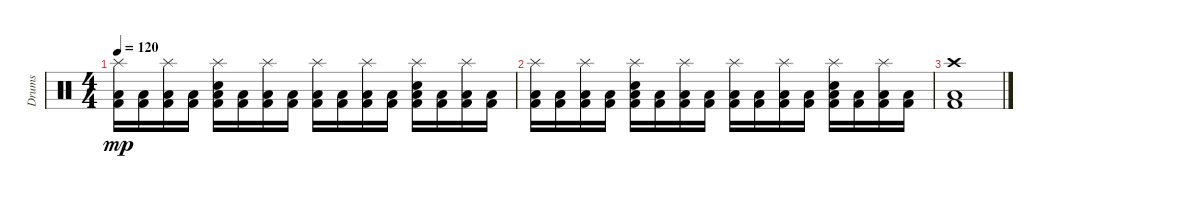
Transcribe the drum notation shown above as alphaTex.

\track ("Drums" "Drums") {instrument percussion}
\staff {score}
\articulation defaults
\ts (4 4)
\tempo 120
\clef neutral
\ks c
("Splash (hit)" "Low Floor Tom (hit)" "Kick (hit) 2").16{dy mp} ("Low Floor Tom (hit)" "Kick (hit) 2").16 ("Splash (hit)" "Low Floor Tom (hit)" "Kick (hit) 2").16 ("Low Floor Tom (hit)" "Kick (hit) 2").16 ("Splash (hit)" "Snare (hit) 2" "Low Floor Tom (hit)" "Kick (hit) 2").16 ("Low Floor Tom (hit)" "Kick (hit) 2").16 ("Splash (hit)" "Low Floor Tom (hit)" "Kick (hit) 2").16 ("Low Floor Tom (hit)" "Kick (hit) 2").16 ("Splash (hit)" "Low Floor Tom (hit)" "Kick (hit) 2").16 ("Low Floor Tom (hit)" "Kick (hit) 2").16 ("Splash (hit)" "Low Floor Tom (hit)" "Kick (hit) 2").16 ("Low Floor Tom (hit)" "Kick (hit) 2").16 ("Splash (hit)" "Snare (hit) 2" "Low Floor Tom (hit)" "Kick (hit) 2").16 ("Low Floor Tom (hit)" "Kick (hit) 2").16 ("Splash (hit)" "Low Floor Tom (hit)" "Kick (hit) 2").16 ("Low Floor Tom (hit)" "Kick (hit) 2").16 |
("Splash (hit)" "Low Floor Tom (hit)" "Kick (hit) 2").16 ("Low Floor Tom (hit)" "Kick (hit) 2").16 ("Splash (hit)" "Low Floor Tom (hit)" "Kick (hit) 2").16 ("Low Floor Tom (hit)" "Kick (hit) 2").16 ("Splash (hit)" "Snare (hit) 2" "Low Floor Tom (hit)" "Kick (hit) 2").16 ("Low Floor Tom (hit)" "Kick (hit) 2").16 ("Splash (hit)" "Low Floor Tom (hit)" "Kick (hit) 2").16 ("Low Floor Tom (hit)" "Kick (hit) 2").16 ("Splash (hit)" "Low Floor Tom (hit)" "Kick (hit) 2").16 ("Low Floor Tom (hit)" "Kick (hit) 2").16 ("Splash (hit)" "Low Floor Tom (hit)" "Kick (hit) 2").16 ("Low Floor Tom (hit)" "Kick (hit) 2").16 ("Splash (hit)" "Snare (hit) 2" "Low Floor Tom (hit)" "Kick (hit) 2").16 ("Low Floor Tom (hit)" "Kick (hit) 2").16 ("Splash (hit)" "Low Floor Tom (hit)" "Kick (hit) 2").16 ("Low Floor Tom (hit)" "Kick (hit) 2").16 |
("Crash high (hit)" "Low Floor Tom (hit)" "Kick (hit) 2").1
